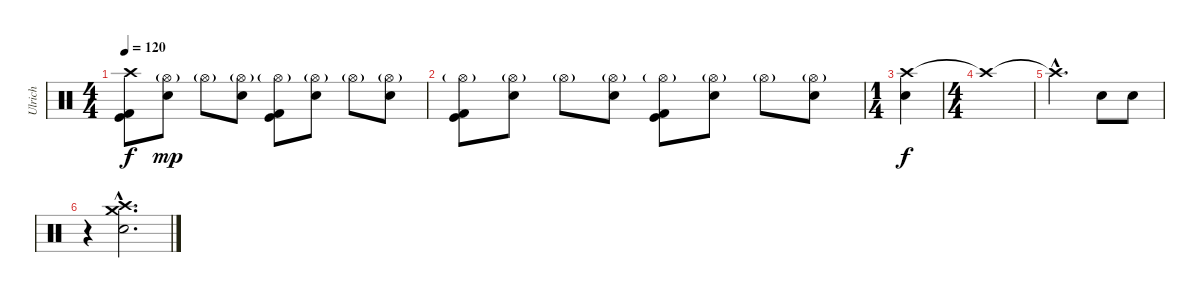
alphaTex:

\track ("Ulrich" "Ulrich") {instrument percussion}
\staff {score}
\articulation defaults
\ts (4 4)
\tempo 120
\clef neutral
\ks c
("Crash high (hit)" "Kick (hit)" "Kick (hit) 2").8{dy f} ("Hi-Hat (open)"{g} "Electric Snare (hit)").8{dy mp} "Hi-Hat (open)"{g}.8 ("Hi-Hat (open)"{g} "Electric Snare (hit)").8 ("Hi-Hat (open)"{g} "Kick (hit)" "Kick (hit) 2").8 ("Hi-Hat (open)"{g} "Electric Snare (hit)").8 "Hi-Hat (open)"{g}.8 ("Hi-Hat (open)"{g} "Electric Snare (hit)").8 |
("Hi-Hat (open)"{g} "Kick (hit)" "Kick (hit) 2").8 ("Hi-Hat (open)"{g} "Electric Snare (hit)").8 "Hi-Hat (open)"{g}.8 ("Hi-Hat (open)"{g} "Electric Snare (hit)").8 ("Hi-Hat (open)"{g} "Kick (hit)" "Kick (hit) 2").8 ("Hi-Hat (open)"{g} "Electric Snare (hit)").8 "Hi-Hat (open)"{g}.8 ("Hi-Hat (open)"{g} "Electric Snare (hit)").8 |
\ts (1 4)
("Crash high (hit)" "Electric Snare (hit)").4{dy f} |
\ts (4 4)
"Crash high (hit)"{t}.1 |
"Crash high (hit)"{hac t}.2{d} "Electric Snare (hit)".8 "Electric Snare (hit)".8 |
r.4 ("Crash medium (hit)"{hac} "Crash high (hit)"{hac} "Electric Snare (hit)"{hac}).2{d}
